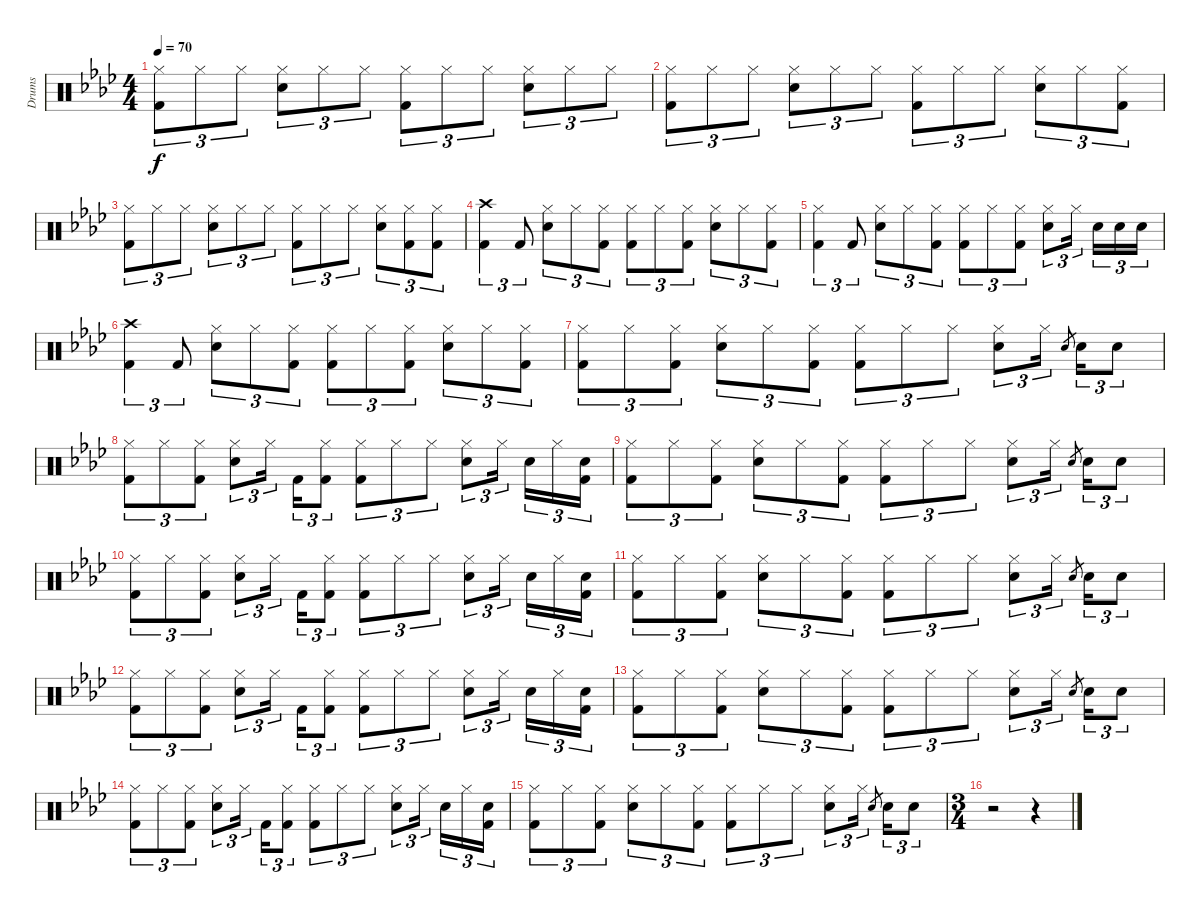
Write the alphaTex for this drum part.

\track ("Drums" "Drums") {instrument percussion}
\staff {score}
\articulation defaults
\ts (4 4)
\tempo 70
\clef neutral
\ks fminor
("Kick (hit) 2" "Hi-Hat (closed)").8{tu (3 2) dy f} "Hi-Hat (closed)".8{tu (3 2)} "Hi-Hat (closed)".8{tu (3 2)} ("Snare (hit) 2" "Hi-Hat (closed)").8{tu (3 2)} "Hi-Hat (closed)".8{tu (3 2)} "Hi-Hat (closed)".8{tu (3 2)} ("Kick (hit) 2" "Hi-Hat (closed)").8{tu (3 2)} "Hi-Hat (closed)".8{tu (3 2)} "Hi-Hat (closed)".8{tu (3 2)} ("Snare (hit) 2" "Hi-Hat (closed)").8{tu (3 2)} "Hi-Hat (closed)".8{tu (3 2)} "Hi-Hat (closed)".8{tu (3 2)} |
("Kick (hit) 2" "Hi-Hat (closed)").8{tu (3 2)} "Hi-Hat (closed)".8{tu (3 2)} "Hi-Hat (closed)".8{tu (3 2)} ("Snare (hit) 2" "Hi-Hat (closed)").8{tu (3 2)} "Hi-Hat (closed)".8{tu (3 2)} "Hi-Hat (closed)".8{tu (3 2)} ("Kick (hit) 2" "Hi-Hat (closed)").8{tu (3 2)} "Hi-Hat (closed)".8{tu (3 2)} "Hi-Hat (closed)".8{tu (3 2)} ("Snare (hit) 2" "Hi-Hat (closed)").8{tu (3 2)} "Hi-Hat (closed)".8{tu (3 2)} ("Kick (hit) 2" "Hi-Hat (closed)").8{tu (3 2)} |
("Kick (hit) 2" "Hi-Hat (closed)").8{tu (3 2)} "Hi-Hat (closed)".8{tu (3 2)} "Hi-Hat (closed)".8{tu (3 2)} ("Snare (hit) 2" "Hi-Hat (closed)").8{tu (3 2)} "Hi-Hat (closed)".8{tu (3 2)} "Hi-Hat (closed)".8{tu (3 2)} ("Kick (hit) 2" "Hi-Hat (closed)").8{tu (3 2)} "Hi-Hat (closed)".8{tu (3 2)} "Hi-Hat (closed)".8{tu (3 2)} ("Snare (hit) 2" "Hi-Hat (closed)").8{tu (3 2)} ("Kick (hit) 2" "Hi-Hat (closed)").8{tu (3 2)} ("Kick (hit) 2" "Hi-Hat (closed)").8{tu (3 2)} |
("Kick (hit) 2" "Crash high (hit)").4{tu (3 2)} "Kick (hit) 2".8{tu (3 2)} ("Snare (hit) 2" "Hi-Hat (closed)").8{tu (3 2)} "Hi-Hat (closed)".8{tu (3 2)} ("Kick (hit) 2" "Hi-Hat (closed)").8{tu (3 2)} ("Kick (hit) 2" "Hi-Hat (closed)").8{tu (3 2)} "Hi-Hat (closed)".8{tu (3 2)} ("Kick (hit) 2" "Hi-Hat (closed)").8{tu (3 2)} ("Snare (hit) 2" "Hi-Hat (closed)").8{tu (3 2)} "Hi-Hat (closed)".8{tu (3 2)} ("Kick (hit) 2" "Hi-Hat (closed)").8{tu (3 2)} |
("Kick (hit) 2" "Hi-Hat (closed)").4{tu (3 2)} "Kick (hit) 2".8{tu (3 2)} ("Snare (hit) 2" "Hi-Hat (closed)").8{tu (3 2)} "Hi-Hat (closed)".8{tu (3 2)} ("Kick (hit) 2" "Hi-Hat (closed)").8{tu (3 2)} ("Kick (hit) 2" "Hi-Hat (closed)").8{tu (3 2)} "Hi-Hat (closed)".8{tu (3 2)} ("Kick (hit) 2" "Hi-Hat (closed)").8{tu (3 2)} ("Snare (hit) 2" "Hi-Hat (closed)").8{tu (3 2)} "Hi-Hat (closed)".16{tu (3 2)} "Snare (hit) 2".16{tu (3 2)} "Snare (hit) 2".16{tu (3 2)} "Snare (hit) 2".16{tu (3 2)} |
("Kick (hit) 2" "Crash high (hit)").4{tu (3 2)} "Kick (hit) 2".8{tu (3 2)} ("Snare (hit) 2" "Hi-Hat (closed)").8{tu (3 2)} "Hi-Hat (closed)".8{tu (3 2)} ("Kick (hit) 2" "Hi-Hat (closed)").8{tu (3 2)} ("Kick (hit) 2" "Hi-Hat (closed)").8{tu (3 2)} "Hi-Hat (closed)".8{tu (3 2)} ("Kick (hit) 2" "Hi-Hat (closed)").8{tu (3 2)} ("Snare (hit) 2" "Hi-Hat (closed)").8{tu (3 2)} "Hi-Hat (closed)".8{tu (3 2)} ("Kick (hit) 2" "Hi-Hat (closed)").8{tu (3 2)} |
("Kick (hit) 2" "Hi-Hat (closed)").8{tu (3 2)} "Hi-Hat (closed)".8{tu (3 2)} ("Kick (hit) 2" "Hi-Hat (closed)").8{tu (3 2)} ("Snare (hit) 2" "Hi-Hat (closed)").8{tu (3 2)} "Hi-Hat (closed)".8{tu (3 2)} ("Kick (hit) 2" "Hi-Hat (closed)").8{tu (3 2)} ("Kick (hit) 2" "Hi-Hat (closed)").8{tu (3 2)} "Hi-Hat (closed)".8{tu (3 2)} "Hi-Hat (closed)".8{tu (3 2)} ("Snare (hit) 2" "Hi-Hat (closed)").8{tu (3 2)} "Hi-Hat (closed)".16{tu (3 2)} "Snare (hit) 2".8{gr} "Snare (hit) 2".16{tu (3 2)} "Snare (hit) 2".8{tu (3 2)} |
("Kick (hit) 2" "Hi-Hat (closed)").8{tu (3 2)} "Hi-Hat (closed)".8{tu (3 2)} ("Kick (hit) 2" "Hi-Hat (closed)").8{tu (3 2)} ("Snare (hit) 2" "Hi-Hat (closed)").8{tu (3 2)} "Hi-Hat (closed)".16{tu (3 2)} "Kick (hit) 2".16{tu (3 2)} ("Kick (hit) 2" "Hi-Hat (closed)").8{tu (3 2)} ("Kick (hit) 2" "Hi-Hat (closed)").8{tu (3 2)} "Hi-Hat (closed)".8{tu (3 2)} "Hi-Hat (closed)".8{tu (3 2)} ("Snare (hit) 2" "Hi-Hat (closed)").8{tu (3 2)} "Hi-Hat (closed)".16{tu (3 2)} "Snare (hit) 2".16{tu (3 2)} "Hi-Hat (closed)".16{tu (3 2)} ("Kick (hit) 2" "Snare (hit) 2").16{tu (3 2)} |
("Kick (hit) 2" "Hi-Hat (closed)").8{tu (3 2)} "Hi-Hat (closed)".8{tu (3 2)} ("Kick (hit) 2" "Hi-Hat (closed)").8{tu (3 2)} ("Snare (hit) 2" "Hi-Hat (closed)").8{tu (3 2)} "Hi-Hat (closed)".8{tu (3 2)} ("Kick (hit) 2" "Hi-Hat (closed)").8{tu (3 2)} ("Kick (hit) 2" "Hi-Hat (closed)").8{tu (3 2)} "Hi-Hat (closed)".8{tu (3 2)} "Hi-Hat (closed)".8{tu (3 2)} ("Snare (hit) 2" "Hi-Hat (closed)").8{tu (3 2)} "Hi-Hat (closed)".16{tu (3 2)} "Snare (hit) 2".8{gr} "Snare (hit) 2".16{tu (3 2)} "Snare (hit) 2".8{tu (3 2)} |
("Kick (hit) 2" "Hi-Hat (closed)").8{tu (3 2)} "Hi-Hat (closed)".8{tu (3 2)} ("Kick (hit) 2" "Hi-Hat (closed)").8{tu (3 2)} ("Snare (hit) 2" "Hi-Hat (closed)").8{tu (3 2)} "Hi-Hat (closed)".16{tu (3 2)} "Kick (hit) 2".16{tu (3 2)} ("Kick (hit) 2" "Hi-Hat (closed)").8{tu (3 2)} ("Kick (hit) 2" "Hi-Hat (closed)").8{tu (3 2)} "Hi-Hat (closed)".8{tu (3 2)} "Hi-Hat (closed)".8{tu (3 2)} ("Snare (hit) 2" "Hi-Hat (closed)").8{tu (3 2)} "Hi-Hat (closed)".16{tu (3 2)} "Snare (hit) 2".16{tu (3 2)} "Hi-Hat (closed)".16{tu (3 2)} ("Kick (hit) 2" "Snare (hit) 2").16{tu (3 2)} |
("Kick (hit) 2" "Hi-Hat (closed)").8{tu (3 2)} "Hi-Hat (closed)".8{tu (3 2)} ("Kick (hit) 2" "Hi-Hat (closed)").8{tu (3 2)} ("Snare (hit) 2" "Hi-Hat (closed)").8{tu (3 2)} "Hi-Hat (closed)".8{tu (3 2)} ("Kick (hit) 2" "Hi-Hat (closed)").8{tu (3 2)} ("Kick (hit) 2" "Hi-Hat (closed)").8{tu (3 2)} "Hi-Hat (closed)".8{tu (3 2)} "Hi-Hat (closed)".8{tu (3 2)} ("Snare (hit) 2" "Hi-Hat (closed)").8{tu (3 2)} "Hi-Hat (closed)".16{tu (3 2)} "Snare (hit) 2".8{gr} "Snare (hit) 2".16{tu (3 2)} "Snare (hit) 2".8{tu (3 2)} |
("Kick (hit) 2" "Hi-Hat (closed)").8{tu (3 2)} "Hi-Hat (closed)".8{tu (3 2)} ("Kick (hit) 2" "Hi-Hat (closed)").8{tu (3 2)} ("Snare (hit) 2" "Hi-Hat (closed)").8{tu (3 2)} "Hi-Hat (closed)".16{tu (3 2)} "Kick (hit) 2".16{tu (3 2)} ("Kick (hit) 2" "Hi-Hat (closed)").8{tu (3 2)} ("Kick (hit) 2" "Hi-Hat (closed)").8{tu (3 2)} "Hi-Hat (closed)".8{tu (3 2)} "Hi-Hat (closed)".8{tu (3 2)} ("Snare (hit) 2" "Hi-Hat (closed)").8{tu (3 2)} "Hi-Hat (closed)".16{tu (3 2)} "Snare (hit) 2".16{tu (3 2)} "Hi-Hat (closed)".16{tu (3 2)} ("Kick (hit) 2" "Snare (hit) 2").16{tu (3 2)} |
("Kick (hit) 2" "Hi-Hat (closed)").8{tu (3 2)} "Hi-Hat (closed)".8{tu (3 2)} ("Kick (hit) 2" "Hi-Hat (closed)").8{tu (3 2)} ("Snare (hit) 2" "Hi-Hat (closed)").8{tu (3 2)} "Hi-Hat (closed)".8{tu (3 2)} ("Kick (hit) 2" "Hi-Hat (closed)").8{tu (3 2)} ("Kick (hit) 2" "Hi-Hat (closed)").8{tu (3 2)} "Hi-Hat (closed)".8{tu (3 2)} "Hi-Hat (closed)".8{tu (3 2)} ("Snare (hit) 2" "Hi-Hat (closed)").8{tu (3 2)} "Hi-Hat (closed)".16{tu (3 2)} "Snare (hit) 2".8{gr} "Snare (hit) 2".16{tu (3 2)} "Snare (hit) 2".8{tu (3 2)} |
("Kick (hit) 2" "Hi-Hat (closed)").8{tu (3 2)} "Hi-Hat (closed)".8{tu (3 2)} ("Kick (hit) 2" "Hi-Hat (closed)").8{tu (3 2)} ("Snare (hit) 2" "Hi-Hat (closed)").8{tu (3 2)} "Hi-Hat (closed)".16{tu (3 2)} "Kick (hit) 2".16{tu (3 2)} ("Kick (hit) 2" "Hi-Hat (closed)").8{tu (3 2)} ("Kick (hit) 2" "Hi-Hat (closed)").8{tu (3 2)} "Hi-Hat (closed)".8{tu (3 2)} "Hi-Hat (closed)".8{tu (3 2)} ("Snare (hit) 2" "Hi-Hat (closed)").8{tu (3 2)} "Hi-Hat (closed)".16{tu (3 2)} "Snare (hit) 2".16{tu (3 2)} "Hi-Hat (closed)".16{tu (3 2)} ("Kick (hit) 2" "Snare (hit) 2").16{tu (3 2)} |
("Kick (hit) 2" "Hi-Hat (closed)").8{tu (3 2)} "Hi-Hat (closed)".8{tu (3 2)} ("Kick (hit) 2" "Hi-Hat (closed)").8{tu (3 2)} ("Snare (hit) 2" "Hi-Hat (closed)").8{tu (3 2)} "Hi-Hat (closed)".8{tu (3 2)} ("Kick (hit) 2" "Hi-Hat (closed)").8{tu (3 2)} ("Kick (hit) 2" "Hi-Hat (closed)").8{tu (3 2)} "Hi-Hat (closed)".8{tu (3 2)} "Hi-Hat (closed)".8{tu (3 2)} ("Snare (hit) 2" "Hi-Hat (closed)").8{tu (3 2)} "Hi-Hat (closed)".16{tu (3 2)} "Snare (hit) 2".8{gr} "Snare (hit) 2".16{tu (3 2)} "Snare (hit) 2".8{tu (3 2)} |
\ts (3 4)
r.2 r.4
